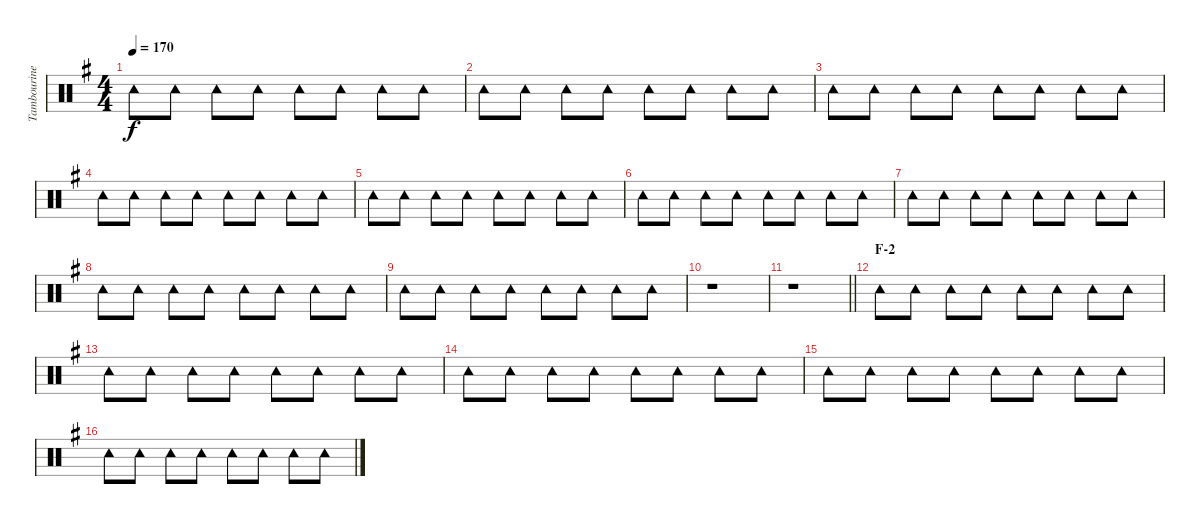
\track ("Tambourine" "Tambourine") {instrument percussion}
\staff {score}
\articulation defaults
\ts (4 4)
\tempo 170
\clef neutral
\ks g "Tambourine (hit)".8{dy f} "Tambourine (hit)".8 "Tambourine (hit)".8 "Tambourine (hit)".8 "Tambourine (hit)".8 "Tambourine (hit)".8 "Tambourine (hit)".8 "Tambourine (hit)".8
|
"Tambourine (hit)".8 "Tambourine (hit)".8 "Tambourine (hit)".8 "Tambourine (hit)".8 "Tambourine (hit)".8 "Tambourine (hit)".8 "Tambourine (hit)".8 "Tambourine (hit)".8 |
"Tambourine (hit)".8 "Tambourine (hit)".8 "Tambourine (hit)".8 "Tambourine (hit)".8 "Tambourine (hit)".8 "Tambourine (hit)".8 "Tambourine (hit)".8 "Tambourine (hit)".8 |
"Tambourine (hit)".8 "Tambourine (hit)".8 "Tambourine (hit)".8 "Tambourine (hit)".8 "Tambourine (hit)".8 "Tambourine (hit)".8 "Tambourine (hit)".8 "Tambourine (hit)".8 |
"Tambourine (hit)".8 "Tambourine (hit)".8 "Tambourine (hit)".8 "Tambourine (hit)".8 "Tambourine (hit)".8 "Tambourine (hit)".8 "Tambourine (hit)".8 "Tambourine (hit)".8 |
"Tambourine (hit)".8 "Tambourine (hit)".8 "Tambourine (hit)".8 "Tambourine (hit)".8 "Tambourine (hit)".8 "Tambourine (hit)".8 "Tambourine (hit)".8 "Tambourine (hit)".8 |
"Tambourine (hit)".8 "Tambourine (hit)".8 "Tambourine (hit)".8 "Tambourine (hit)".8 "Tambourine (hit)".8 "Tambourine (hit)".8 "Tambourine (hit)".8 "Tambourine (hit)".8 |
"Tambourine (hit)".8 "Tambourine (hit)".8 "Tambourine (hit)".8 "Tambourine (hit)".8 "Tambourine (hit)".8 "Tambourine (hit)".8 "Tambourine (hit)".8 "Tambourine (hit)".8 |
"Tambourine (hit)".8 "Tambourine (hit)".8 "Tambourine (hit)".8 "Tambourine (hit)".8 "Tambourine (hit)".8 "Tambourine (hit)".8 "Tambourine (hit)".8 "Tambourine (hit)".8 |
r.1 |
\barLineRight lightlight
r.1 |
\section ("" "F-2")
"Tambourine (hit)".8 "Tambourine (hit)".8 "Tambourine (hit)".8 "Tambourine (hit)".8 "Tambourine (hit)".8 "Tambourine (hit)".8 "Tambourine (hit)".8 "Tambourine (hit)".8 |
"Tambourine (hit)".8 "Tambourine (hit)".8 "Tambourine (hit)".8 "Tambourine (hit)".8 "Tambourine (hit)".8 "Tambourine (hit)".8 "Tambourine (hit)".8 "Tambourine (hit)".8 |
"Tambourine (hit)".8 "Tambourine (hit)".8 "Tambourine (hit)".8 "Tambourine (hit)".8 "Tambourine (hit)".8 "Tambourine (hit)".8 "Tambourine (hit)".8 "Tambourine (hit)".8 |
"Tambourine (hit)".8 "Tambourine (hit)".8 "Tambourine (hit)".8 "Tambourine (hit)".8 "Tambourine (hit)".8 "Tambourine (hit)".8 "Tambourine (hit)".8 "Tambourine (hit)".8 |
"Tambourine (hit)".8 "Tambourine (hit)".8 "Tambourine (hit)".8 "Tambourine (hit)".8 "Tambourine (hit)".8 "Tambourine (hit)".8 "Tambourine (hit)".8 "Tambourine (hit)".8
